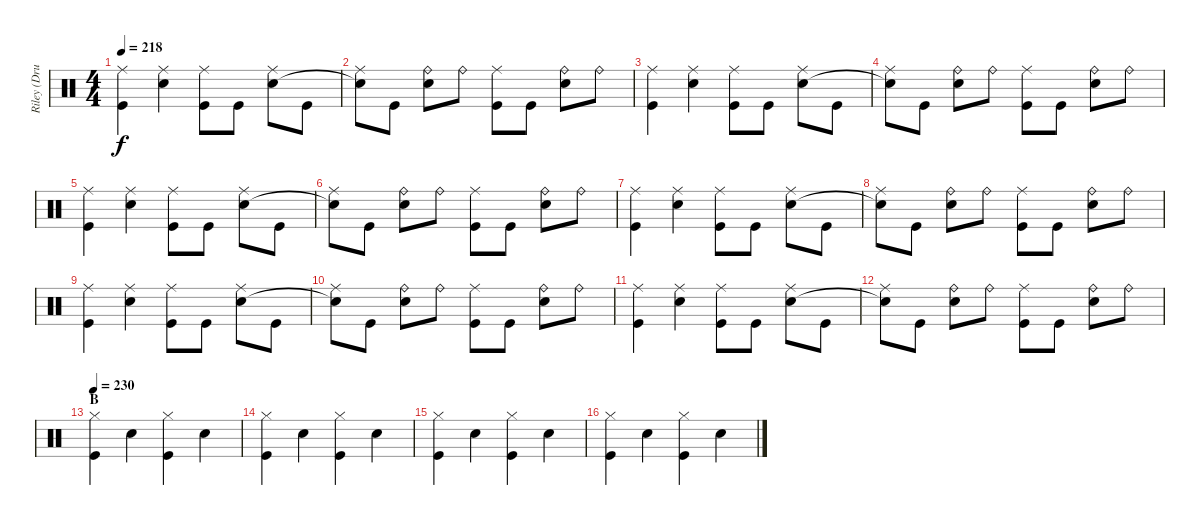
\track ("Riley (Drums)" "Riley (Dru") {instrument percussion}
\staff {score}
\articulation defaults
\ts (4 4)
\tempo 218
\clef neutral
\ks c
("Ride (middle)" "Kick (hit)").4{dy f} ("Ride (middle)" "Electric Snare (hit)").4 ("Ride (middle)" "Kick (hit)").8 "Kick (hit)".8 ("Ride (middle)" "Electric Snare (hit)").8 "Kick (hit)".8 |
("Ride (middle)" "Snare (hit)"{t}).8 "Kick (hit)".8 ("Ride (bell)" "Electric Snare (hit)").8 "Ride (bell)".8 ("Ride (middle)" "Kick (hit)").8 "Kick (hit)".8 ("Ride (bell)" "Electric Snare (hit)").8 "Ride (bell)".8 |
("Ride (middle)" "Kick (hit)").4 ("Ride (middle)" "Electric Snare (hit)").4 ("Ride (middle)" "Kick (hit)").8 "Kick (hit)".8 ("Ride (middle)" "Electric Snare (hit)").8 "Kick (hit)".8 |
("Ride (middle)" "Snare (hit)"{t}).8 "Kick (hit)".8 ("Ride (bell)" "Electric Snare (hit)").8 "Ride (bell)".8 ("Ride (middle)" "Kick (hit)").8 "Kick (hit)".8 ("Ride (bell)" "Electric Snare (hit)").8 "Ride (bell)".8 |
("Ride (middle)" "Kick (hit)").4 ("Ride (middle)" "Electric Snare (hit)").4 ("Ride (middle)" "Kick (hit)").8 "Kick (hit)".8 ("Ride (middle)" "Electric Snare (hit)").8 "Kick (hit)".8 |
("Ride (middle)" "Snare (hit)"{t}).8 "Kick (hit)".8 ("Ride (bell)" "Electric Snare (hit)").8 "Ride (bell)".8 ("Ride (middle)" "Kick (hit)").8 "Kick (hit)".8 ("Ride (bell)" "Electric Snare (hit)").8 "Ride (bell)".8 |
("Ride (middle)" "Kick (hit)").4 ("Ride (middle)" "Electric Snare (hit)").4 ("Ride (middle)" "Kick (hit)").8 "Kick (hit)".8 ("Ride (middle)" "Electric Snare (hit)").8 "Kick (hit)".8 |
("Ride (middle)" "Snare (hit)"{t}).8 "Kick (hit)".8 ("Ride (bell)" "Electric Snare (hit)").8 "Ride (bell)".8 ("Ride (middle)" "Kick (hit)").8 "Kick (hit)".8 ("Ride (bell)" "Electric Snare (hit)").8 "Ride (bell)".8 |
("Ride (middle)" "Kick (hit)").4 ("Ride (middle)" "Electric Snare (hit)").4 ("Ride (middle)" "Kick (hit)").8 "Kick (hit)".8 ("Ride (middle)" "Electric Snare (hit)").8 "Kick (hit)".8 |
("Ride (middle)" "Snare (hit)"{t}).8 "Kick (hit)".8 ("Ride (bell)" "Electric Snare (hit)").8 "Ride (bell)".8 ("Ride (middle)" "Kick (hit)").8 "Kick (hit)".8 ("Ride (bell)" "Electric Snare (hit)").8 "Ride (bell)".8 |
("Ride (middle)" "Kick (hit)").4 ("Ride (middle)" "Electric Snare (hit)").4 ("Ride (middle)" "Kick (hit)").8 "Kick (hit)".8 ("Ride (middle)" "Electric Snare (hit)").8 "Kick (hit)".8 |
("Ride (middle)" "Snare (hit)"{t}).8 "Kick (hit)".8 ("Ride (bell)" "Electric Snare (hit)").8 "Ride (bell)".8 ("Ride (middle)" "Kick (hit)").8 "Kick (hit)".8 ("Ride (bell)" "Electric Snare (hit)").8 "Ride (bell)".8 |
\section ("" "B")
\tempo 230
("Hi-Hat (closed)" "Kick (hit)").4 "Electric Snare (hit)".4 ("Hi-Hat (closed)" "Kick (hit)").4 "Electric Snare (hit)".4 |
("Hi-Hat (closed)" "Kick (hit)").4 "Electric Snare (hit)".4 ("Hi-Hat (closed)" "Kick (hit)").4 "Electric Snare (hit)".4 |
("Hi-Hat (closed)" "Kick (hit)").4 "Electric Snare (hit)".4 ("Hi-Hat (closed)" "Kick (hit)").4 "Electric Snare (hit)".4 |
("Hi-Hat (closed)" "Kick (hit)").4 "Electric Snare (hit)".4 ("Hi-Hat (closed)" "Kick (hit)").4 "Electric Snare (hit)".4
